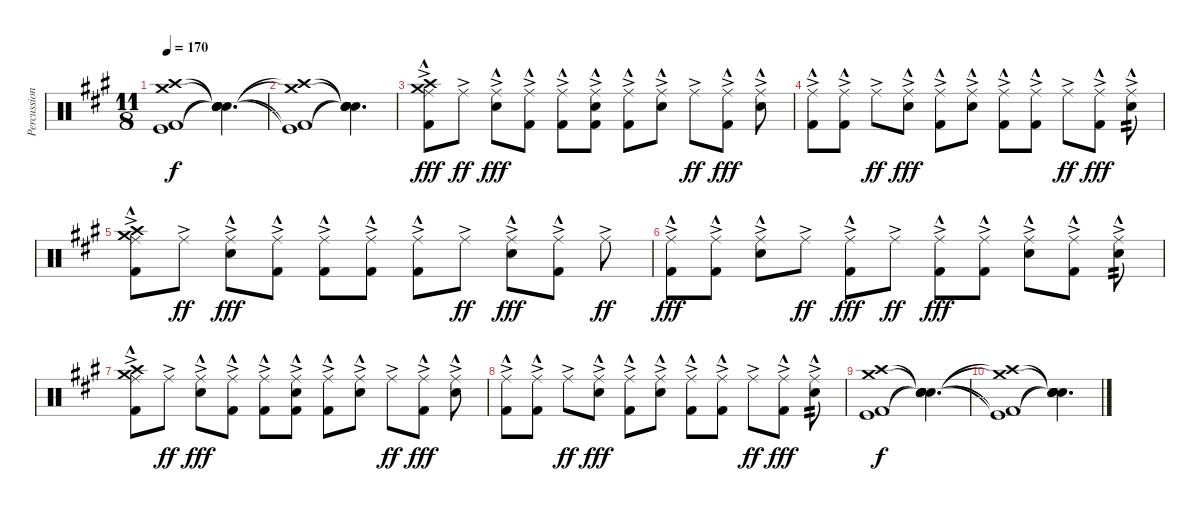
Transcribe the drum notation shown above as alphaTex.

\track ("Percussion" "Percussion") {instrument percussion}
\staff {score}
\articulation defaults
\ts (11 8)
\tempo 170
\clef neutral
\ks f#minor
("Crash medium (hit)" "Crash high (hit)" "Kick (hit) 2" "Kick (hit)").1{dy f} ("Snare (hit)"{t} "Snare (hit)"{t} "Snare (hit)"{t} "Snare (hit)"{t}).4{d} |
("Crash medium (hit)"{t} "Crash high (hit)"{t} "Kick (hit) 2"{t} "Kick (hit)"{t}).1 ("Snare (hit)"{t} "Snare (hit)"{t} "Snare (hit)"{t} "Snare (hit)"{t}).4{d} |
("Crash medium (hit)"{ac} "Crash high (hit)"{ac} "Ride (middle)"{ac} "Kick (hit) 2"{hac}).8{dy fff} "Ride (middle)"{ac}.8{dy ff} ("Ride (middle)"{ac} "Electric Snare (hit)"{hac}).8{dy fff} ("Ride (middle)"{ac} "Kick (hit) 2"{hac}).8 ("Ride (middle)"{ac} "Kick (hit) 2"{hac}).8 ("Ride (middle)"{ac} "Electric Snare (hit)"{hac} "Kick (hit) 2"{hac}).8 ("Ride (middle)"{ac} "Kick (hit) 2"{hac}).8 ("Ride (middle)"{ac} "Electric Snare (hit)"{hac}).8 "Ride (middle)"{ac}.8{dy ff} ("Ride (middle)"{ac} "Kick (hit) 2"{hac}).8{dy fff} ("Ride (middle)"{ac} "Electric Snare (hit)"{hac}).8 |
("Ride (middle)"{ac} "Kick (hit) 2"{hac}).8 ("Ride (middle)"{ac} "Kick (hit) 2"{hac}).8 "Ride (middle)"{ac}.8{dy ff} ("Ride (middle)"{ac} "Electric Snare (hit)"{hac}).8{dy fff} ("Ride (middle)"{ac} "Kick (hit) 2"{hac}).8 ("Ride (middle)"{ac} "Electric Snare (hit)"{hac}).8 ("Ride (middle)"{ac} "Kick (hit) 2"{hac}).8 ("Ride (middle)"{ac} "Kick (hit) 2"{hac}).8 "Ride (middle)"{ac}.8{dy ff} ("Ride (middle)"{ac} "Kick (hit) 2"{hac}).8{dy fff} ("Ride (middle)"{ac} "Electric Snare (hit)"{hac}).8{tp 2} |
("Crash medium (hit)"{ac} "Crash high (hit)"{ac} "Ride (middle)"{ac} "Kick (hit) 2"{hac}).8 "Ride (middle)"{ac}.8{dy ff} ("Ride (middle)"{ac} "Electric Snare (hit)"{hac}).8{dy fff} ("Ride (middle)"{ac} "Kick (hit) 2"{hac}).8 ("Ride (middle)"{ac} "Kick (hit) 2"{hac}).8 ("Ride (middle)"{ac} "Kick (hit) 2"{hac}).8 ("Ride (middle)"{ac} "Kick (hit) 2"{hac}).8 "Ride (middle)"{ac}.8{dy ff} ("Ride (middle)"{ac} "Electric Snare (hit)"{hac}).8{dy fff} ("Ride (middle)"{ac} "Kick (hit) 2"{hac}).8 "Ride (middle)"{ac}.8{dy ff} |
("Ride (middle)"{ac} "Kick (hit) 2"{hac}).8{dy fff} ("Ride (middle)"{ac} "Kick (hit) 2"{hac}).8 ("Ride (middle)"{ac} "Electric Snare (hit)"{hac}).8 "Ride (middle)"{ac}.8{dy ff} ("Ride (middle)"{ac} "Kick (hit) 2"{hac}).8{dy fff} "Ride (middle)"{ac}.8{dy ff} ("Ride (middle)"{ac} "Kick (hit) 2"{hac}).8{dy fff} ("Ride (middle)"{ac} "Kick (hit) 2"{hac}).8 ("Ride (middle)"{ac} "Electric Snare (hit)"{hac}).8 ("Ride (middle)"{ac} "Kick (hit) 2"{hac}).8 ("Ride (middle)"{ac} "Electric Snare (hit)"{hac}).8{tp 2} |
("Crash medium (hit)"{ac} "Crash high (hit)"{ac} "Ride (middle)"{ac} "Kick (hit) 2"{hac}).8 "Ride (middle)"{ac}.8{dy ff} ("Ride (middle)"{ac} "Electric Snare (hit)"{hac}).8{dy fff} ("Ride (middle)"{ac} "Kick (hit) 2"{hac}).8 ("Ride (middle)"{ac} "Kick (hit) 2"{hac}).8 ("Ride (middle)"{ac} "Electric Snare (hit)"{hac} "Kick (hit) 2"{hac}).8 ("Ride (middle)"{ac} "Kick (hit) 2"{hac}).8 ("Ride (middle)"{ac} "Electric Snare (hit)"{hac}).8 "Ride (middle)"{ac}.8{dy ff} ("Ride (middle)"{ac} "Kick (hit) 2"{hac}).8{dy fff} ("Ride (middle)"{ac} "Electric Snare (hit)"{hac}).8 |
("Ride (middle)"{ac} "Kick (hit) 2"{hac}).8 ("Ride (middle)"{ac} "Kick (hit) 2"{hac}).8 "Ride (middle)"{ac}.8{dy ff} ("Ride (middle)"{ac} "Electric Snare (hit)"{hac}).8{dy fff} ("Ride (middle)"{ac} "Kick (hit) 2"{hac}).8 ("Ride (middle)"{ac} "Electric Snare (hit)"{hac}).8 ("Ride (middle)"{ac} "Kick (hit) 2"{hac}).8 ("Ride (middle)"{ac} "Kick (hit) 2"{hac}).8 "Ride (middle)"{ac}.8{dy ff} ("Ride (middle)"{ac} "Kick (hit) 2"{hac}).8{dy fff} ("Ride (middle)"{ac} "Electric Snare (hit)"{hac}).8{tp 2} |
("Crash medium (hit)" "Crash high (hit)" "Kick (hit) 2" "Kick (hit)").1{dy f} ("Snare (hit)"{t} "Snare (hit)"{t} "Snare (hit)"{t} "Snare (hit)"{t}).4{d} |
("Crash medium (hit)"{t} "Crash high (hit)"{t} "Kick (hit) 2"{t} "Kick (hit)"{t}).1 ("Snare (hit)"{t} "Snare (hit)"{t} "Snare (hit)"{t} "Snare (hit)"{t}).4{d}
